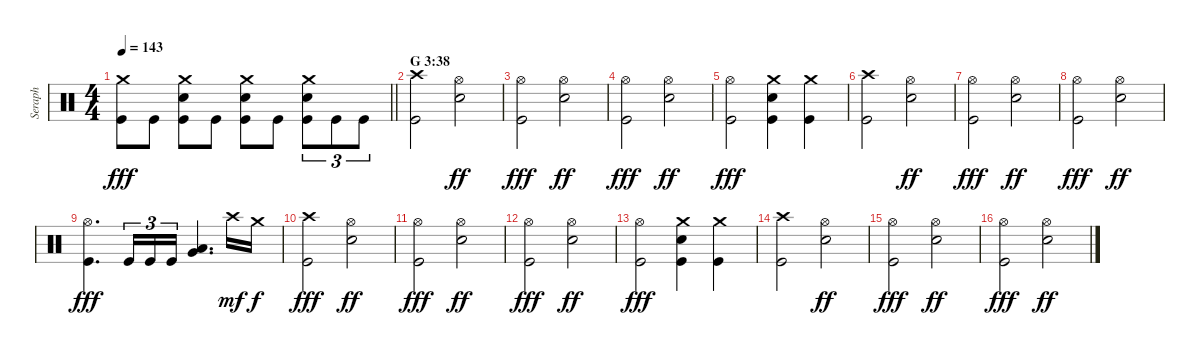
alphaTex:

\track ("Seraph" "Seraph") {instrument percussion}
\staff {score}
\articulation defaults
\ts (4 4)
\tempo 143
\clef neutral
\barLineRight lightlight
\ks c
("Crash medium (hit)" "Kick (hit)").8{dy fff} "Kick (hit)".8 ("Crash medium (hit)" "Electric Snare (hit)" "Kick (hit)").8 "Kick (hit)".8 ("Crash medium (hit)" "Electric Snare (hit)" "Kick (hit)").8 "Kick (hit)".8 ("Crash medium (hit)" "Electric Snare (hit)" "Kick (hit)").8{tu (3 2)} "Kick (hit)".8{tu (3 2)} "Kick (hit)".8{tu (3 2)} |
\section ("" "G 3:38")
("Crash high (hit)" "Kick (hit)").2 ("Hi-Hat (open)" "Electric Snare (hit)").2{dy ff} |
("Hi-Hat (open)" "Kick (hit)").2{dy fff} ("Hi-Hat (open)" "Electric Snare (hit)").2{dy ff} |
("Hi-Hat (open)" "Kick (hit)").2{dy fff} ("Hi-Hat (open)" "Electric Snare (hit)").2{dy ff} |
("Hi-Hat (open)" "Kick (hit)").2{dy fff} ("Crash medium (hit)" "Electric Snare (hit)" "Kick (hit)").4 ("Crash medium (hit)" "Kick (hit)").4 |
("Crash high (hit)" "Kick (hit)").2 ("Hi-Hat (open)" "Electric Snare (hit)").2{dy ff} |
("Hi-Hat (open)" "Kick (hit)").2{dy fff} ("Hi-Hat (open)" "Electric Snare (hit)").2{dy ff} |
("Hi-Hat (open)" "Kick (hit)").2{dy fff} ("Hi-Hat (open)" "Electric Snare (hit)").2{dy ff} |
("Hi-Hat (open)" "Kick (hit)").4{d dy fff} "Kick (hit)".16{tu (3 2)} "Kick (hit)".16{tu (3 2)} "Kick (hit)".16{tu (3 2)} ("Low Floor Tom (hit)" "Very Low Tom (hit)").4{d} "Crash high (hit)".16{dy mf} "Crash medium (hit)".16{dy f} |
("Crash high (hit)" "Kick (hit)").2{dy fff} ("Hi-Hat (open)" "Electric Snare (hit)").2{dy ff} |
("Hi-Hat (open)" "Kick (hit)").2{dy fff} ("Hi-Hat (open)" "Electric Snare (hit)").2{dy ff} |
("Hi-Hat (open)" "Kick (hit)").2{dy fff} ("Hi-Hat (open)" "Electric Snare (hit)").2{dy ff} |
("Hi-Hat (open)" "Kick (hit)").2{dy fff} ("Crash medium (hit)" "Electric Snare (hit)" "Kick (hit)").4 ("Crash medium (hit)" "Kick (hit)").4 |
("Crash high (hit)" "Kick (hit)").2 ("Hi-Hat (open)" "Electric Snare (hit)").2{dy ff} |
("Hi-Hat (open)" "Kick (hit)").2{dy fff} ("Hi-Hat (open)" "Electric Snare (hit)").2{dy ff} |
("Hi-Hat (open)" "Kick (hit)").2{dy fff} ("Hi-Hat (open)" "Electric Snare (hit)").2{dy ff}
